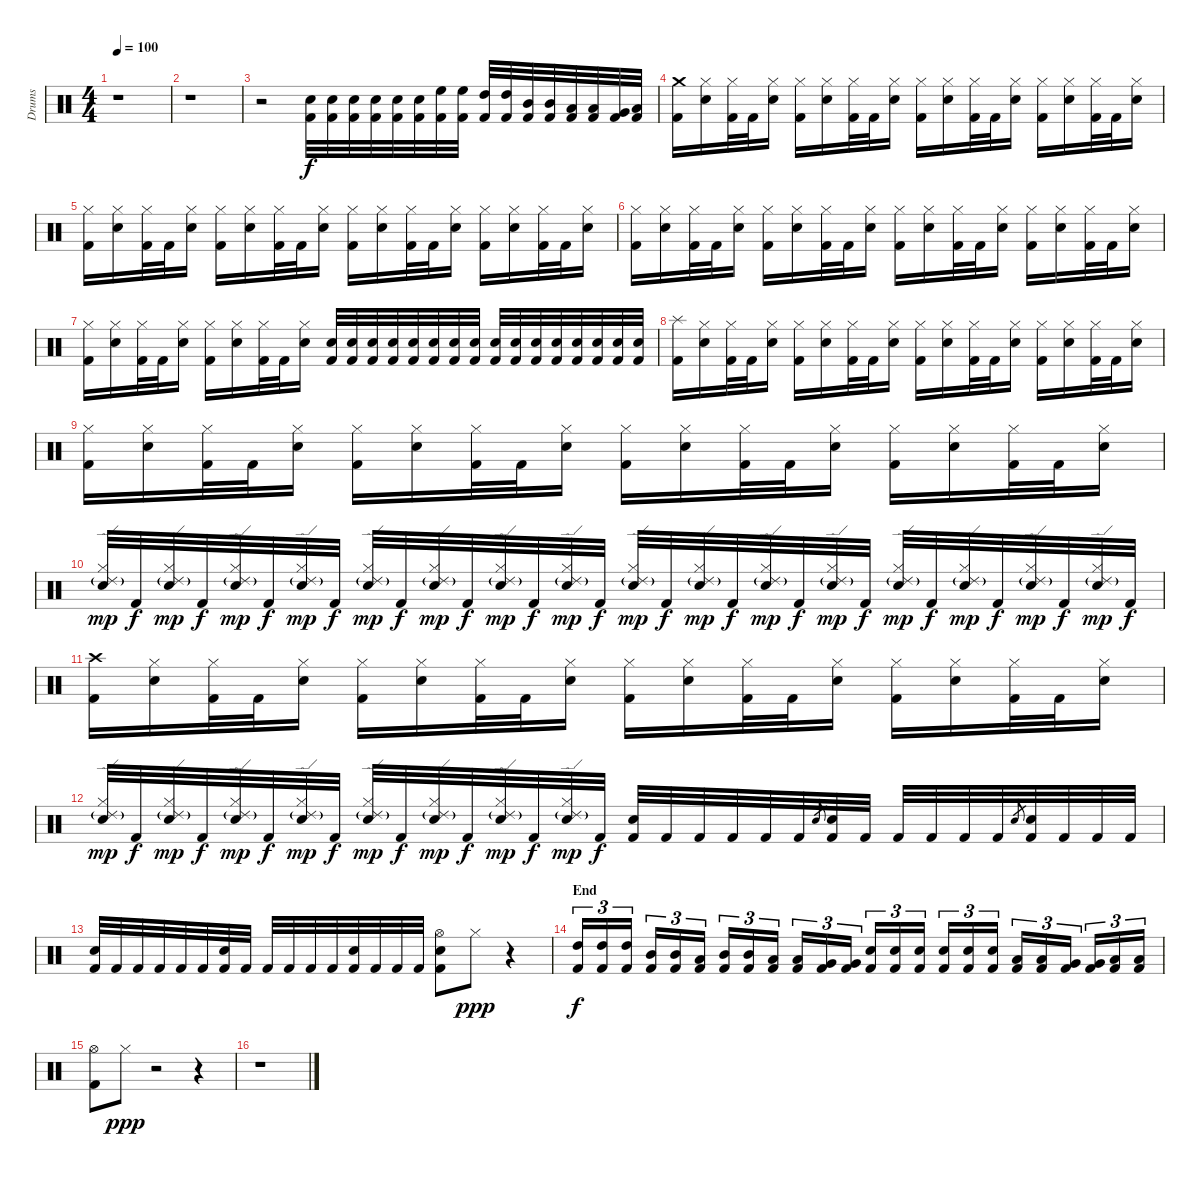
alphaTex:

\track ("Drums" "Drums") {instrument percussion}
\staff {score}
\articulation defaults
\ts (4 4)
\tempo 100
\clef neutral
\ks c
r.1{dy ppp} |
r.1 |
r.2 ("Kick (hit) 2" "Snare (hit) 2").32{dy f} ("Kick (hit) 2" "Snare (hit) 2").32 ("Kick (hit) 2" "Snare (hit) 2").32 ("Kick (hit) 2" "Snare (hit) 2").32 ("Kick (hit) 2" "Snare (hit) 2").32 ("Kick (hit) 2" "Snare (hit) 2").32 ("Kick (hit) 2" "High Floor Tom (hit)").32 ("Kick (hit) 2" "High Floor Tom (hit)").32 ("Kick (hit) 2" "High Tom (hit)").32 ("Kick (hit) 2" "High Tom (hit)").32 ("Kick (hit) 2" "Mid Tom (hit)").32 ("Kick (hit) 2" "Mid Tom (hit)").32 ("Kick (hit) 2" "Low Tom (hit)").32 ("Kick (hit) 2" "Low Tom (hit)").32 ("Kick (hit) 2" "Very Low Tom (hit)").32 ("Kick (hit) 2" "Low Floor Tom (hit)").32 |
\section ("" "")
("Kick (hit) 2" "Crash medium (hit)").16 ("Snare (hit) 2" "Hi-Hat (closed)").16 ("Kick (hit) 2" "Hi-Hat (closed)").32 "Kick (hit) 2".32 ("Snare (hit) 2" "Hi-Hat (closed)").16 ("Kick (hit) 2" "Hi-Hat (closed)").16 ("Snare (hit) 2" "Hi-Hat (closed)").16 ("Kick (hit) 2" "Hi-Hat (closed)").32 "Kick (hit) 2".32 ("Snare (hit) 2" "Hi-Hat (closed)").16 ("Kick (hit) 2" "Hi-Hat (closed)").16 ("Snare (hit) 2" "Hi-Hat (closed)").16 ("Kick (hit) 2" "Hi-Hat (closed)").32 "Kick (hit) 2".32 ("Snare (hit) 2" "Hi-Hat (closed)").16 ("Kick (hit) 2" "Hi-Hat (closed)").16 ("Snare (hit) 2" "Hi-Hat (closed)").16 ("Kick (hit) 2" "Hi-Hat (closed)").32 "Kick (hit) 2".32 ("Snare (hit) 2" "Hi-Hat (closed)").16 |
("Kick (hit) 2" "Hi-Hat (closed)").16 ("Snare (hit) 2" "Hi-Hat (closed)").16 ("Kick (hit) 2" "Hi-Hat (closed)").32 "Kick (hit) 2".32 ("Snare (hit) 2" "Hi-Hat (closed)").16 ("Kick (hit) 2" "Hi-Hat (closed)").16 ("Snare (hit) 2" "Hi-Hat (closed)").16 ("Kick (hit) 2" "Hi-Hat (closed)").32 "Kick (hit) 2".32 ("Snare (hit) 2" "Hi-Hat (closed)").16 ("Kick (hit) 2" "Hi-Hat (closed)").16 ("Snare (hit) 2" "Hi-Hat (closed)").16 ("Kick (hit) 2" "Hi-Hat (closed)").32 "Kick (hit) 2".32 ("Snare (hit) 2" "Hi-Hat (closed)").16 ("Kick (hit) 2" "Hi-Hat (closed)").16 ("Snare (hit) 2" "Hi-Hat (closed)").16 ("Kick (hit) 2" "Hi-Hat (closed)").32 "Kick (hit) 2".32 ("Snare (hit) 2" "Hi-Hat (closed)").16 |
("Kick (hit) 2" "Hi-Hat (closed)").16 ("Snare (hit) 2" "Hi-Hat (closed)").16 ("Kick (hit) 2" "Hi-Hat (closed)").32 "Kick (hit) 2".32 ("Snare (hit) 2" "Hi-Hat (closed)").16 ("Kick (hit) 2" "Hi-Hat (closed)").16 ("Snare (hit) 2" "Hi-Hat (closed)").16 ("Kick (hit) 2" "Hi-Hat (closed)").32 "Kick (hit) 2".32 ("Snare (hit) 2" "Hi-Hat (closed)").16 ("Kick (hit) 2" "Hi-Hat (closed)").16 ("Snare (hit) 2" "Hi-Hat (closed)").16 ("Kick (hit) 2" "Hi-Hat (closed)").32 "Kick (hit) 2".32 ("Snare (hit) 2" "Hi-Hat (closed)").16 ("Kick (hit) 2" "Hi-Hat (closed)").16 ("Snare (hit) 2" "Hi-Hat (closed)").16 ("Kick (hit) 2" "Hi-Hat (closed)").32 "Kick (hit) 2".32 ("Snare (hit) 2" "Hi-Hat (closed)").16 |
("Kick (hit) 2" "Hi-Hat (closed)").16 ("Snare (hit) 2" "Hi-Hat (closed)").16 ("Kick (hit) 2" "Hi-Hat (closed)").32 "Kick (hit) 2".32 ("Snare (hit) 2" "Hi-Hat (closed)").16 ("Kick (hit) 2" "Hi-Hat (closed)").16 ("Snare (hit) 2" "Hi-Hat (closed)").16 ("Kick (hit) 2" "Hi-Hat (closed)").32 "Kick (hit) 2".32 ("Snare (hit) 2" "Hi-Hat (closed)").16 ("Kick (hit) 2" "Snare (hit) 2").32 ("Kick (hit) 2" "Snare (hit) 2").32 ("Kick (hit) 2" "Snare (hit) 2").32 ("Kick (hit) 2" "Snare (hit) 2").32 ("Kick (hit) 2" "Snare (hit) 2").32 ("Kick (hit) 2" "Snare (hit) 2").32 ("Kick (hit) 2" "Snare (hit) 2").32 ("Kick (hit) 2" "Snare (hit) 2").32 ("Kick (hit) 2" "Snare (hit) 2").32 ("Kick (hit) 2" "Snare (hit) 2").32 ("Kick (hit) 2" "Snare (hit) 2").32 ("Kick (hit) 2" "Snare (hit) 2").32 ("Kick (hit) 2" "Snare (hit) 2").32 ("Kick (hit) 2" "Snare (hit) 2").32 ("Kick (hit) 2" "Snare (hit) 2").32 ("Kick (hit) 2" "Snare (hit) 2").32 |
\section ("" "")
("Kick (hit) 2" "Splash (hit)").16 ("Snare (hit) 2" "Hi-Hat (closed)").16 ("Kick (hit) 2" "Hi-Hat (closed)").32 "Kick (hit) 2".32 ("Snare (hit) 2" "Hi-Hat (closed)").16 ("Kick (hit) 2" "Hi-Hat (closed)").16 ("Snare (hit) 2" "Hi-Hat (closed)").16 ("Kick (hit) 2" "Hi-Hat (closed)").32 "Kick (hit) 2".32 ("Snare (hit) 2" "Hi-Hat (closed)").16 ("Kick (hit) 2" "Hi-Hat (closed)").16 ("Snare (hit) 2" "Hi-Hat (closed)").16 ("Kick (hit) 2" "Hi-Hat (closed)").32 "Kick (hit) 2".32 ("Snare (hit) 2" "Hi-Hat (closed)").16 ("Kick (hit) 2" "Hi-Hat (closed)").16 ("Snare (hit) 2" "Hi-Hat (closed)").16 ("Kick (hit) 2" "Hi-Hat (closed)").32 "Kick (hit) 2".32 ("Snare (hit) 2" "Hi-Hat (closed)").16 |
("Kick (hit) 2" "Hi-Hat (closed)").16 ("Snare (hit) 2" "Hi-Hat (closed)").16 ("Kick (hit) 2" "Hi-Hat (closed)").32 "Kick (hit) 2".32 ("Snare (hit) 2" "Hi-Hat (closed)").16 ("Kick (hit) 2" "Hi-Hat (closed)").16 ("Snare (hit) 2" "Hi-Hat (closed)").16 ("Kick (hit) 2" "Hi-Hat (closed)").32 "Kick (hit) 2".32 ("Snare (hit) 2" "Hi-Hat (closed)").16 ("Kick (hit) 2" "Hi-Hat (closed)").16 ("Snare (hit) 2" "Hi-Hat (closed)").16 ("Kick (hit) 2" "Hi-Hat (closed)").32 "Kick (hit) 2".32 ("Snare (hit) 2" "Hi-Hat (closed)").16 ("Kick (hit) 2" "Hi-Hat (closed)").16 ("Snare (hit) 2" "Hi-Hat (closed)").16 ("Kick (hit) 2" "Hi-Hat (closed)").32 "Kick (hit) 2".32 ("Snare (hit) 2" "Hi-Hat (closed)").16 |
("Snare (hit) 2" "Hi-Hat (closed)" "Ride (edge) 2"{g}).32{dy mp} "Kick (hit) 2".32{dy f} ("Snare (hit) 2" "Hi-Hat (closed)" "Ride (edge) 2"{g}).32{dy mp} "Kick (hit) 2".32{dy f} ("Snare (hit) 2" "Hi-Hat (closed)" "Ride (edge) 2"{g}).32{dy mp} "Kick (hit) 2".32{dy f} ("Snare (hit) 2" "Hi-Hat (closed)" "Ride (edge) 2"{g}).32{dy mp} "Kick (hit) 2".32{dy f} ("Snare (hit) 2" "Hi-Hat (closed)" "Ride (edge) 2"{g}).32{dy mp} "Kick (hit) 2".32{dy f} ("Snare (hit) 2" "Hi-Hat (closed)" "Ride (edge) 2"{g}).32{dy mp} "Kick (hit) 2".32{dy f} ("Snare (hit) 2" "Hi-Hat (closed)" "Ride (edge) 2"{g}).32{dy mp} "Kick (hit) 2".32{dy f} ("Snare (hit) 2" "Hi-Hat (closed)" "Ride (edge) 2"{g}).32{dy mp} "Kick (hit) 2".32{dy f} ("Snare (hit) 2" "Hi-Hat (closed)" "Ride (edge) 2"{g}).32{dy mp} "Kick (hit) 2".32{dy f} ("Snare (hit) 2" "Hi-Hat (closed)" "Ride (edge) 2"{g}).32{dy mp} "Kick (hit) 2".32{dy f} ("Snare (hit) 2" "Hi-Hat (closed)" "Ride (edge) 2"{g}).32{dy mp} "Kick (hit) 2".32{dy f} ("Snare (hit) 2" "Hi-Hat (closed)" "Ride (edge) 2"{g}).32{dy mp} "Kick (hit) 2".32{dy f} ("Snare (hit) 2" "Hi-Hat (closed)" "Ride (edge) 2"{g}).32{dy mp} "Kick (hit) 2".32{dy f} ("Snare (hit) 2" "Hi-Hat (closed)" "Ride (edge) 2"{g}).32{dy mp} "Kick (hit) 2".32{dy f} ("Snare (hit) 2" "Hi-Hat (closed)" "Ride (edge) 2"{g}).32{dy mp} "Kick (hit) 2".32{dy f} ("Snare (hit) 2" "Hi-Hat (closed)" "Ride (edge) 2"{g}).32{dy mp} "Kick (hit) 2".32{dy f} |
("Kick (hit) 2" "Crash high (hit)").16 ("Snare (hit) 2" "Hi-Hat (closed)").16 ("Kick (hit) 2" "Hi-Hat (closed)").32 "Kick (hit) 2".32 ("Snare (hit) 2" "Hi-Hat (closed)").16 ("Kick (hit) 2" "Hi-Hat (closed)").16 ("Snare (hit) 2" "Hi-Hat (closed)").16 ("Kick (hit) 2" "Hi-Hat (closed)").32 "Kick (hit) 2".32 ("Snare (hit) 2" "Hi-Hat (closed)").16 ("Kick (hit) 2" "Hi-Hat (closed)").16 ("Snare (hit) 2" "Hi-Hat (closed)").16 ("Kick (hit) 2" "Hi-Hat (closed)").32 "Kick (hit) 2".32 ("Snare (hit) 2" "Hi-Hat (closed)").16 ("Kick (hit) 2" "Hi-Hat (closed)").16 ("Snare (hit) 2" "Hi-Hat (closed)").16 ("Kick (hit) 2" "Hi-Hat (closed)").32 "Kick (hit) 2".32 ("Snare (hit) 2" "Hi-Hat (closed)").16 |
("Snare (hit) 2" "Hi-Hat (closed)" "Ride (edge) 2"{g}).32{dy mp} "Kick (hit) 2".32{dy f} ("Snare (hit) 2" "Hi-Hat (closed)" "Ride (edge) 2"{g}).32{dy mp} "Kick (hit) 2".32{dy f} ("Snare (hit) 2" "Hi-Hat (closed)" "Ride (edge) 2"{g}).32{dy mp} "Kick (hit) 2".32{dy f} ("Snare (hit) 2" "Hi-Hat (closed)" "Ride (edge) 2"{g}).32{dy mp} "Kick (hit) 2".32{dy f} ("Snare (hit) 2" "Hi-Hat (closed)" "Ride (edge) 2"{g}).32{dy mp} "Kick (hit) 2".32{dy f} ("Snare (hit) 2" "Hi-Hat (closed)" "Ride (edge) 2"{g}).32{dy mp} "Kick (hit) 2".32{dy f} ("Snare (hit) 2" "Hi-Hat (closed)" "Ride (edge) 2"{g}).32{dy mp} "Kick (hit) 2".32{dy f} ("Snare (hit) 2" "Hi-Hat (closed)" "Ride (edge) 2"{g}).32{dy mp} "Kick (hit) 2".32{dy f} ("Kick (hit) 2" "Snare (hit) 2").32 "Kick (hit) 2".32 "Kick (hit) 2".32 "Kick (hit) 2".32 "Kick (hit) 2".32 "Kick (hit) 2".32 "Snare (hit) 2".8{gr} ("Kick (hit) 2" "Snare (hit) 2").32 "Kick (hit) 2".32 "Kick (hit) 2".32 "Kick (hit) 2".32 "Kick (hit) 2".32 "Kick (hit) 2".32 "Snare (hit) 2".8{gr} ("Kick (hit) 2" "Snare (hit) 2").32 "Kick (hit) 2".32 "Kick (hit) 2".32 "Kick (hit) 2".32 |
("Kick (hit) 2" "Snare (hit) 2").32 "Kick (hit) 2".32 "Kick (hit) 2".32 "Kick (hit) 2".32 "Kick (hit) 2".32 "Kick (hit) 2".32 ("Kick (hit) 2" "Snare (hit) 2").32 "Kick (hit) 2".32 "Kick (hit) 2".32 "Kick (hit) 2".32 "Kick (hit) 2".32 "Kick (hit) 2".32 ("Kick (hit) 2" "Snare (hit) 2").32 "Kick (hit) 2".32 "Kick (hit) 2".32 "Kick (hit) 2".32 ("Kick (hit) 2" "Snare (hit) 2" "Hi-Hat (open)").8 "Hi-Hat (closed)".8{dy ppp} r.4 |
\section ("" "End")
("Kick (hit) 2" "High Tom (hit)").16{tu (3 2) dy f} ("Kick (hit) 2" "High Tom (hit)").16{tu (3 2)} ("Kick (hit) 2" "High Tom (hit)").16{tu (3 2)} ("Kick (hit) 2" "Mid Tom (hit)").16{tu (3 2)} ("Kick (hit) 2" "Mid Tom (hit)").16{tu (3 2)} ("Kick (hit) 2" "Low Tom (hit)").16{tu (3 2)} ("Kick (hit) 2" "Mid Tom (hit)").16{tu (3 2)} ("Kick (hit) 2" "Mid Tom (hit)").16{tu (3 2)} ("Kick (hit) 2" "Low Tom (hit)").16{tu (3 2)} ("Kick (hit) 2" "Low Tom (hit)").16{tu (3 2)} ("Kick (hit) 2" "Very Low Tom (hit)").16{tu (3 2)} ("Kick (hit) 2" "Very Low Tom (hit)").16{tu (3 2)} ("Kick (hit) 2" "Snare (hit) 2").16{tu (3 2)} ("Kick (hit) 2" "Snare (hit) 2").16{tu (3 2)} ("Kick (hit) 2" "Snare (hit) 2").16{tu (3 2)} ("Kick (hit) 2" "Snare (hit) 2").16{tu (3 2)} ("Kick (hit) 2" "Snare (hit) 2").16{tu (3 2)} ("Kick (hit) 2" "Snare (hit) 2").16{tu (3 2)} ("Kick (hit) 2" "Low Tom (hit)").16{tu (3 2)} ("Kick (hit) 2" "Low Tom (hit)").16{tu (3 2)} ("Kick (hit) 2" "Very Low Tom (hit)").16{tu (3 2)} ("Kick (hit) 2" "Very Low Tom (hit)").16{tu (3 2)} ("Kick (hit) 2" "Low Floor Tom (hit)").16{tu (3 2)} ("Kick (hit) 2" "Low Floor Tom (hit)").16{tu (3 2)} |
("Kick (hit) 2" "Hi-Hat (open)").8 "Hi-Hat (closed)".8{dy ppp} r.2 r.4 |
r.1
